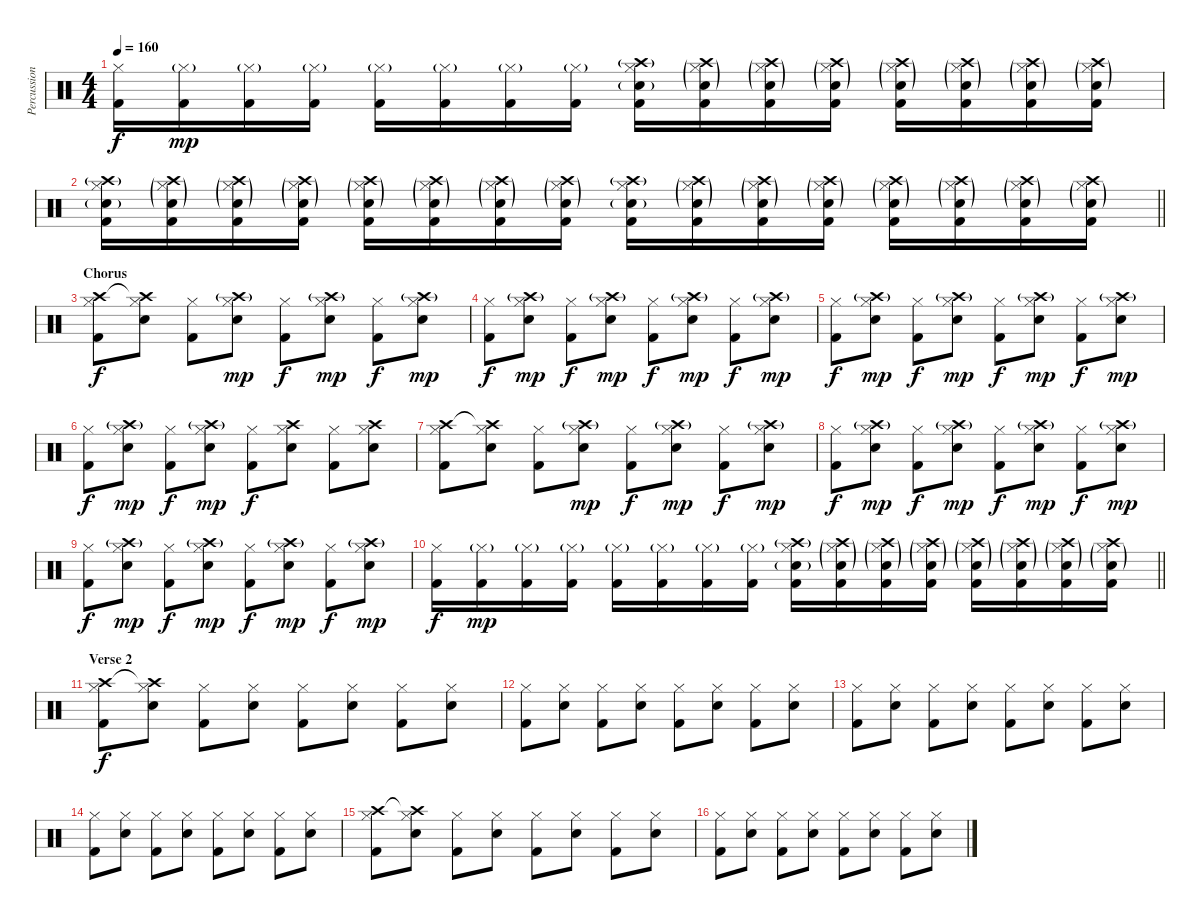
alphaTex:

\track ("Percussion" "Percussion") {instrument percussion}
\staff {score}
\articulation defaults
\ts (4 4)
\tempo 160
\clef neutral
\ks c
("Hi-Hat (closed)" "Kick (hit) 2").16{dy f} ("Hi-Hat (closed)"{g} "Kick (hit) 2").16{dy mp} ("Hi-Hat (closed)"{g} "Kick (hit) 2").16 ("Hi-Hat (closed)"{g} "Kick (hit) 2").16 ("Hi-Hat (closed)"{g} "Kick (hit) 2").16 ("Hi-Hat (closed)"{g} "Kick (hit) 2").16 ("Hi-Hat (closed)"{g} "Kick (hit) 2").16 ("Hi-Hat (closed)"{g} "Kick (hit) 2").16 ("Crash high (hit)"{g} "Electric Snare (hit)"{g} "Hi-Hat (closed)" "Kick (hit) 2").16 ("Crash high (hit)"{g} "Electric Snare (hit)"{g} "Hi-Hat (closed)"{g} "Kick (hit) 2").16 ("Crash high (hit)"{g} "Electric Snare (hit)"{g} "Hi-Hat (closed)"{g} "Kick (hit) 2").16 ("Crash high (hit)"{g} "Electric Snare (hit)"{g} "Hi-Hat (closed)"{g} "Kick (hit) 2").16 ("Crash high (hit)"{g} "Electric Snare (hit)"{g} "Hi-Hat (closed)"{g} "Kick (hit) 2").16 ("Crash high (hit)"{g} "Electric Snare (hit)"{g} "Hi-Hat (closed)"{g} "Kick (hit) 2").16 ("Crash high (hit)"{g} "Electric Snare (hit)"{g} "Hi-Hat (closed)"{g} "Kick (hit) 2").16 ("Crash high (hit)"{g} "Electric Snare (hit)"{g} "Hi-Hat (closed)"{g} "Kick (hit) 2").16 |
\barLineRight lightlight
("Crash high (hit)"{g} "Electric Snare (hit)"{g} "Hi-Hat (closed)" "Kick (hit) 2").16 ("Crash high (hit)"{g} "Electric Snare (hit)"{g} "Hi-Hat (closed)"{g} "Kick (hit) 2").16 ("Crash high (hit)"{g} "Electric Snare (hit)"{g} "Hi-Hat (closed)"{g} "Kick (hit) 2").16 ("Crash high (hit)"{g} "Electric Snare (hit)"{g} "Hi-Hat (closed)"{g} "Kick (hit) 2").16 ("Crash high (hit)"{g} "Electric Snare (hit)"{g} "Hi-Hat (closed)"{g} "Kick (hit) 2").16 ("Crash high (hit)"{g} "Electric Snare (hit)"{g} "Hi-Hat (closed)"{g} "Kick (hit) 2").16 ("Crash high (hit)"{g} "Electric Snare (hit)"{g} "Hi-Hat (closed)"{g} "Kick (hit) 2").16 ("Crash high (hit)"{g} "Electric Snare (hit)"{g} "Hi-Hat (closed)"{g} "Kick (hit) 2").16 ("Crash high (hit)"{g} "Electric Snare (hit)"{g} "Hi-Hat (closed)" "Kick (hit) 2").16 ("Crash high (hit)"{g} "Electric Snare (hit)"{g} "Hi-Hat (closed)"{g} "Kick (hit) 2").16 ("Crash high (hit)"{g} "Electric Snare (hit)"{g} "Hi-Hat (closed)"{g} "Kick (hit) 2").16 ("Crash high (hit)"{g} "Electric Snare (hit)"{g} "Hi-Hat (closed)"{g} "Kick (hit) 2").16 ("Crash high (hit)"{g} "Electric Snare (hit)"{g} "Hi-Hat (closed)"{g} "Kick (hit) 2").16 ("Crash high (hit)"{g} "Electric Snare (hit)"{g} "Hi-Hat (closed)"{g} "Kick (hit) 2").16 ("Crash high (hit)"{g} "Electric Snare (hit)"{g} "Hi-Hat (closed)"{g} "Kick (hit) 2").16 ("Crash high (hit)" "Electric Snare (hit)"{g} "Hi-Hat (closed)"{g} "Kick (hit) 2").16 |
\section ("" "Chorus")
("Crash high (hit)" "Hi-Hat (closed)" "Kick (hit) 2").8{dy f} ("Crash high (hit)"{t} "Hi-Hat (closed)" "Snare (hit) 2").8 ("Hi-Hat (closed)" "Kick (hit) 2").8 ("Crash high (hit)"{g} "Hi-Hat (closed)" "Snare (hit) 2").8{dy mp} ("Hi-Hat (closed)" "Kick (hit) 2").8{dy f} ("Crash high (hit)"{g} "Hi-Hat (closed)" "Snare (hit) 2").8{dy mp} ("Hi-Hat (closed)" "Kick (hit) 2").8{dy f} ("Crash high (hit)"{g} "Hi-Hat (closed)" "Snare (hit) 2").8{dy mp} |
("Hi-Hat (closed)" "Kick (hit) 2").8{dy f} ("Crash high (hit)"{g} "Hi-Hat (closed)" "Snare (hit) 2").8{dy mp} ("Hi-Hat (closed)" "Kick (hit) 2").8{dy f} ("Crash high (hit)"{g} "Hi-Hat (closed)" "Snare (hit) 2").8{dy mp} ("Hi-Hat (closed)" "Kick (hit) 2").8{dy f} ("Crash high (hit)"{g} "Hi-Hat (closed)" "Snare (hit) 2").8{dy mp} ("Hi-Hat (closed)" "Kick (hit) 2").8{dy f} ("Crash high (hit)"{g} "Hi-Hat (closed)" "Snare (hit) 2").8{dy mp} |
("Hi-Hat (closed)" "Kick (hit) 2").8{dy f} ("Crash high (hit)"{g} "Hi-Hat (closed)" "Snare (hit) 2").8{dy mp} ("Hi-Hat (closed)" "Kick (hit) 2").8{dy f} ("Crash high (hit)"{g} "Hi-Hat (closed)" "Snare (hit) 2").8{dy mp} ("Hi-Hat (closed)" "Kick (hit) 2").8{dy f} ("Crash high (hit)"{g} "Hi-Hat (closed)" "Snare (hit) 2").8{dy mp} ("Hi-Hat (closed)" "Kick (hit) 2").8{dy f} ("Crash high (hit)"{g} "Hi-Hat (closed)" "Snare (hit) 2").8{dy mp} |
("Hi-Hat (closed)" "Kick (hit) 2").8{dy f} ("Crash high (hit)"{g} "Hi-Hat (closed)" "Snare (hit) 2").8{dy mp} ("Hi-Hat (closed)" "Kick (hit) 2").8{dy f} ("Crash high (hit)"{g} "Hi-Hat (closed)" "Snare (hit) 2").8{dy mp} ("Hi-Hat (closed)" "Kick (hit) 2").8{dy f} ("Crash high (hit)" "Hi-Hat (closed)" "Snare (hit) 2").8 ("Hi-Hat (closed)" "Kick (hit) 2").8 ("Crash high (hit)" "Hi-Hat (closed)" "Snare (hit) 2").8 |
("Crash high (hit)" "Hi-Hat (closed)" "Kick (hit) 2").8 ("Crash high (hit)"{t} "Hi-Hat (closed)" "Snare (hit) 2").8 ("Hi-Hat (closed)" "Kick (hit) 2").8 ("Crash high (hit)"{g} "Hi-Hat (closed)" "Snare (hit) 2").8{dy mp} ("Hi-Hat (closed)" "Kick (hit) 2").8{dy f} ("Crash high (hit)"{g} "Hi-Hat (closed)" "Snare (hit) 2").8{dy mp} ("Hi-Hat (closed)" "Kick (hit) 2").8{dy f} ("Crash high (hit)"{g} "Hi-Hat (closed)" "Snare (hit) 2").8{dy mp} |
("Hi-Hat (closed)" "Kick (hit) 2").8{dy f} ("Crash high (hit)"{g} "Hi-Hat (closed)" "Snare (hit) 2").8{dy mp} ("Hi-Hat (closed)" "Kick (hit) 2").8{dy f} ("Crash high (hit)"{g} "Hi-Hat (closed)" "Snare (hit) 2").8{dy mp} ("Hi-Hat (closed)" "Kick (hit) 2").8{dy f} ("Crash high (hit)"{g} "Hi-Hat (closed)" "Snare (hit) 2").8{dy mp} ("Hi-Hat (closed)" "Kick (hit) 2").8{dy f} ("Crash high (hit)"{g} "Hi-Hat (closed)" "Snare (hit) 2").8{dy mp} |
("Hi-Hat (closed)" "Kick (hit) 2").8{dy f} ("Crash high (hit)"{g} "Hi-Hat (closed)" "Snare (hit) 2").8{dy mp} ("Hi-Hat (closed)" "Kick (hit) 2").8{dy f} ("Crash high (hit)"{g} "Hi-Hat (closed)" "Snare (hit) 2").8{dy mp} ("Hi-Hat (closed)" "Kick (hit) 2").8{dy f} ("Crash high (hit)"{g} "Hi-Hat (closed)" "Snare (hit) 2").8{dy mp} ("Hi-Hat (closed)" "Kick (hit) 2").8{dy f} ("Crash high (hit)"{g} "Hi-Hat (closed)" "Snare (hit) 2").8{dy mp} |
\barLineRight lightlight
("Hi-Hat (closed)" "Kick (hit) 2").16{dy f} ("Hi-Hat (closed)"{g} "Kick (hit) 2").16{dy mp} ("Hi-Hat (closed)"{g} "Kick (hit) 2").16 ("Hi-Hat (closed)"{g} "Kick (hit) 2").16 ("Hi-Hat (closed)"{g} "Kick (hit) 2").16 ("Hi-Hat (closed)"{g} "Kick (hit) 2").16 ("Hi-Hat (closed)"{g} "Kick (hit) 2").16 ("Hi-Hat (closed)"{g} "Kick (hit) 2").16 ("Crash high (hit)"{g} "Electric Snare (hit)"{g} "Hi-Hat (closed)" "Kick (hit) 2").16 ("Crash high (hit)"{g} "Electric Snare (hit)"{g} "Hi-Hat (closed)"{g} "Kick (hit) 2").16 ("Crash high (hit)"{g} "Electric Snare (hit)"{g} "Hi-Hat (closed)"{g} "Kick (hit) 2").16 ("Crash high (hit)"{g} "Electric Snare (hit)"{g} "Hi-Hat (closed)"{g} "Kick (hit) 2").16 ("Crash high (hit)"{g} "Electric Snare (hit)"{g} "Hi-Hat (closed)"{g} "Kick (hit) 2").16 ("Crash high (hit)"{g} "Electric Snare (hit)"{g} "Hi-Hat (closed)"{g} "Kick (hit) 2").16 ("Crash high (hit)"{g} "Electric Snare (hit)"{g} "Hi-Hat (closed)"{g} "Kick (hit) 2").16 ("Crash high (hit)" "Electric Snare (hit)"{g} "Hi-Hat (closed)"{g} "Kick (hit) 2").16 |
\section ("" "Verse 2")
("Crash high (hit)" "Hi-Hat (closed)" "Kick (hit) 2").8{dy f} ("Crash high (hit)"{t} "Hi-Hat (closed)" "Snare (hit) 2").8 ("Hi-Hat (closed)" "Kick (hit) 2").8 ("Hi-Hat (closed)" "Snare (hit) 2").8 ("Hi-Hat (closed)" "Kick (hit) 2").8 ("Hi-Hat (closed)" "Snare (hit) 2").8 ("Hi-Hat (closed)" "Kick (hit) 2").8 ("Hi-Hat (closed)" "Snare (hit) 2").8 |
("Hi-Hat (closed)" "Kick (hit) 2").8 ("Hi-Hat (closed)" "Snare (hit) 2").8 ("Hi-Hat (closed)" "Kick (hit) 2").8 ("Hi-Hat (closed)" "Snare (hit) 2").8 ("Hi-Hat (closed)" "Kick (hit) 2").8 ("Hi-Hat (closed)" "Snare (hit) 2").8 ("Hi-Hat (closed)" "Kick (hit) 2").8 ("Hi-Hat (closed)" "Snare (hit) 2").8 |
("Hi-Hat (closed)" "Kick (hit) 2").8 ("Hi-Hat (closed)" "Snare (hit) 2").8 ("Hi-Hat (closed)" "Kick (hit) 2").8 ("Hi-Hat (closed)" "Snare (hit) 2").8 ("Hi-Hat (closed)" "Kick (hit) 2").8 ("Hi-Hat (closed)" "Snare (hit) 2").8 ("Hi-Hat (closed)" "Kick (hit) 2").8 ("Hi-Hat (closed)" "Snare (hit) 2").8 |
("Hi-Hat (closed)" "Kick (hit) 2").8 ("Hi-Hat (closed)" "Snare (hit) 2").8 ("Hi-Hat (closed)" "Kick (hit) 2").8 ("Hi-Hat (closed)" "Snare (hit) 2").8 ("Hi-Hat (closed)" "Kick (hit) 2").8 ("Hi-Hat (closed)" "Snare (hit) 2").8 ("Hi-Hat (closed)" "Kick (hit) 2").8 ("Hi-Hat (closed)" "Snare (hit) 2").8 |
("Crash high (hit)" "Hi-Hat (closed)" "Kick (hit) 2").8 ("Crash high (hit)"{t} "Hi-Hat (closed)" "Snare (hit) 2").8 ("Hi-Hat (closed)" "Kick (hit) 2").8 ("Hi-Hat (closed)" "Snare (hit) 2").8 ("Hi-Hat (closed)" "Kick (hit) 2").8 ("Hi-Hat (closed)" "Snare (hit) 2").8 ("Hi-Hat (closed)" "Kick (hit) 2").8 ("Hi-Hat (closed)" "Snare (hit) 2").8 |
("Hi-Hat (closed)" "Kick (hit) 2").8 ("Hi-Hat (closed)" "Snare (hit) 2").8 ("Hi-Hat (closed)" "Kick (hit) 2").8 ("Hi-Hat (closed)" "Snare (hit) 2").8 ("Hi-Hat (closed)" "Kick (hit) 2").8 ("Hi-Hat (closed)" "Snare (hit) 2").8 ("Hi-Hat (closed)" "Kick (hit) 2").8 ("Hi-Hat (closed)" "Snare (hit) 2").8
